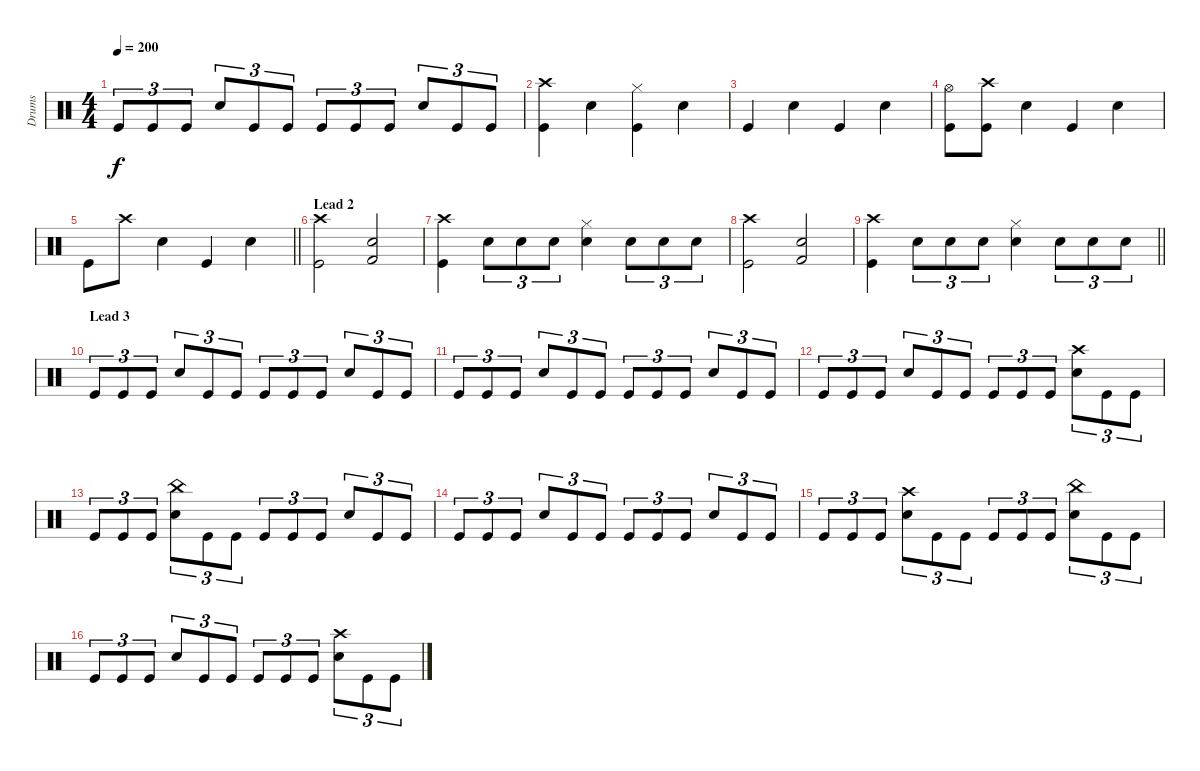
\track ("Drums" "Drums") {instrument percussion}
\staff {score}
\articulation defaults
\ts (4 4)
\tempo 200
\clef neutral
\ks c "Kick (hit)".8{tu (3 2) dy f} "Kick (hit)".8{tu (3 2)} "Kick (hit)".8{tu (3 2)} "Snare (hit) 2".8{tu (3 2)} "Kick (hit)".8{tu (3 2)} "Kick (hit)".8{tu (3 2)} "Kick (hit)".8{tu (3 2)} "Kick (hit)".8{tu (3 2)} "Kick (hit)".8{tu (3 2)} "Snare (hit) 2".8{tu (3 2)} "Kick (hit)".8{tu (3 2)} "Kick (hit)".8{tu (3 2)}
|
("Crash high (hit)" "Kick (hit)").4 "Snare (hit) 2".4 ("Hi-Hat (closed)" "Kick (hit)").4 "Snare (hit) 2".4 |
"Kick (hit)".4 "Snare (hit) 2".4 "Kick (hit)".4 "Snare (hit) 2".4 |
("Hi-Hat (open)" "Kick (hit)").8 ("Crash high (hit)" "Kick (hit)").8 "Snare (hit) 2".4 "Kick (hit)".4 "Snare (hit) 2".4 |
\barLineRight lightlight "Kick (hit)".8 "Crash high (hit)".8 "Snare (hit) 2".4 "Kick (hit)".4 "Snare (hit) 2".4
|
\section ("" "Lead 2")
("Crash high (hit)" "Kick (hit)").2 ("Kick (hit) 2" "Snare (hit) 2").2 |
("Crash high (hit)" "Kick (hit)").4 "Snare (hit) 2".8{tu (3 2)} "Snare (hit) 2".8{tu (3 2)} "Snare (hit) 2".8{tu (3 2)} ("Hi-Hat (closed)" "Snare (hit) 2").4 "Snare (hit) 2".8{tu (3 2)} "Snare (hit) 2".8{tu (3 2)} "Snare (hit) 2".8{tu (3 2)} |
("Crash high (hit)" "Kick (hit)").2 ("Kick (hit) 2" "Snare (hit) 2").2 |
\barLineRight lightlight
("Crash high (hit)" "Kick (hit)").4 "Snare (hit) 2".8{tu (3 2)} "Snare (hit) 2".8{tu (3 2)} "Snare (hit) 2".8{tu (3 2)} ("Hi-Hat (closed)" "Snare (hit) 2").4 "Snare (hit) 2".8{tu (3 2)} "Snare (hit) 2".8{tu (3 2)} "Snare (hit) 2".8{tu (3 2)} |
\section ("" "Lead 3")
"Kick (hit)".8{tu (3 2)} "Kick (hit)".8{tu (3 2)} "Kick (hit)".8{tu (3 2)} "Snare (hit) 2".8{tu (3 2)} "Kick (hit)".8{tu (3 2)} "Kick (hit)".8{tu (3 2)} "Kick (hit)".8{tu (3 2)} "Kick (hit)".8{tu (3 2)} "Kick (hit)".8{tu (3 2)} "Snare (hit) 2".8{tu (3 2)} "Kick (hit)".8{tu (3 2)} "Kick (hit)".8{tu (3 2)} |
"Kick (hit)".8{tu (3 2)} "Kick (hit)".8{tu (3 2)} "Kick (hit)".8{tu (3 2)} "Snare (hit) 2".8{tu (3 2)} "Kick (hit)".8{tu (3 2)} "Kick (hit)".8{tu (3 2)} "Kick (hit)".8{tu (3 2)} "Kick (hit)".8{tu (3 2)} "Kick (hit)".8{tu (3 2)} "Snare (hit) 2".8{tu (3 2)} "Kick (hit)".8{tu (3 2)} "Kick (hit)".8{tu (3 2)} |
"Kick (hit)".8{tu (3 2)} "Kick (hit)".8{tu (3 2)} "Kick (hit)".8{tu (3 2)} "Snare (hit) 2".8{tu (3 2)} "Kick (hit)".8{tu (3 2)} "Kick (hit)".8{tu (3 2)} "Kick (hit)".8{tu (3 2)} "Kick (hit)".8{tu (3 2)} "Kick (hit)".8{tu (3 2)} ("Crash high (hit)" "Snare (hit) 2").8{tu (3 2)} "Kick (hit)".8{tu (3 2)} "Kick (hit)".8{tu (3 2)} |
"Kick (hit)".8{tu (3 2)} "Kick (hit)".8{tu (3 2)} "Kick (hit)".8{tu (3 2)} ("China (hit)" "Snare (hit) 2").8{tu (3 2)} "Kick (hit)".8{tu (3 2)} "Kick (hit)".8{tu (3 2)} "Kick (hit)".8{tu (3 2)} "Kick (hit)".8{tu (3 2)} "Kick (hit)".8{tu (3 2)} "Snare (hit) 2".8{tu (3 2)} "Kick (hit)".8{tu (3 2)} "Kick (hit)".8{tu (3 2)} |
"Kick (hit)".8{tu (3 2)} "Kick (hit)".8{tu (3 2)} "Kick (hit)".8{tu (3 2)} "Snare (hit) 2".8{tu (3 2)} "Kick (hit)".8{tu (3 2)} "Kick (hit)".8{tu (3 2)} "Kick (hit)".8{tu (3 2)} "Kick (hit)".8{tu (3 2)} "Kick (hit)".8{tu (3 2)} "Snare (hit) 2".8{tu (3 2)} "Kick (hit)".8{tu (3 2)} "Kick (hit)".8{tu (3 2)} |
"Kick (hit)".8{tu (3 2)} "Kick (hit)".8{tu (3 2)} "Kick (hit)".8{tu (3 2)} ("Crash high (hit)" "Snare (hit) 2").8{tu (3 2)} "Kick (hit)".8{tu (3 2)} "Kick (hit)".8{tu (3 2)} "Kick (hit)".8{tu (3 2)} "Kick (hit)".8{tu (3 2)} "Kick (hit)".8{tu (3 2)} ("China (hit)" "Snare (hit) 2").8{tu (3 2)} "Kick (hit)".8{tu (3 2)} "Kick (hit)".8{tu (3 2)} |
"Kick (hit)".8{tu (3 2)} "Kick (hit)".8{tu (3 2)} "Kick (hit)".8{tu (3 2)} "Snare (hit) 2".8{tu (3 2)} "Kick (hit)".8{tu (3 2)} "Kick (hit)".8{tu (3 2)} "Kick (hit)".8{tu (3 2)} "Kick (hit)".8{tu (3 2)} "Kick (hit)".8{tu (3 2)} ("Crash high (hit)" "Snare (hit) 2").8{tu (3 2)} "Kick (hit)".8{tu (3 2)} "Kick (hit)".8{tu (3 2)}
